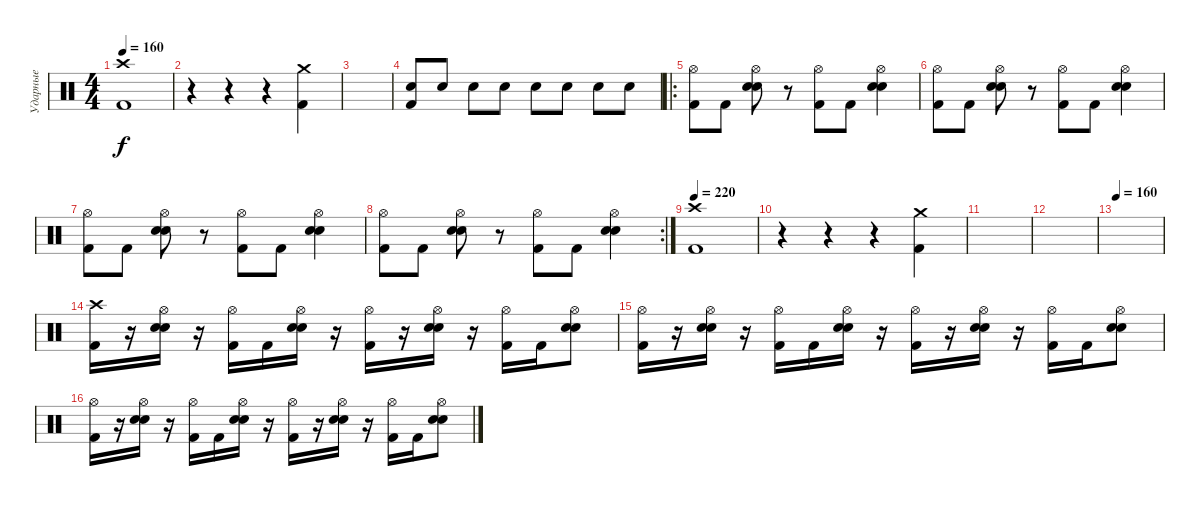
\track ("Ударные" "Ударные") {instrument percussion}
\staff {score}
\articulation defaults
\ts (4 4)
\tempo 160
\clef neutral
\ks c
("Crash high (hit)" "Kick (hit) 2").1{dy f} |
r.4 r.4 r.4 ("Kick (hit) 2" "Crash medium (hit)").4 |
|
("Electric Snare (hit)" "Kick (hit) 2").8 "Electric Snare (hit)".8 "Electric Snare (hit)".8 "Electric Snare (hit)".8 "Electric Snare (hit)".8 "Electric Snare (hit)".8 "Electric Snare (hit)".8 "Electric Snare (hit)".8 |
\ro
("Hi-Hat (open)" "Kick (hit) 2").8 "Kick (hit) 2".8 ("Hi-Hat (open)" "Electric Snare (hit)" "Snare (hit) 2").8 r.8 ("Hi-Hat (open)" "Kick (hit) 2").8 "Kick (hit) 2".8 ("Hi-Hat (open)" "Electric Snare (hit)" "Snare (hit) 2").4 |
("Hi-Hat (open)" "Kick (hit) 2").8 "Kick (hit) 2".8 ("Hi-Hat (open)" "Electric Snare (hit)" "Snare (hit) 2").8 r.8 ("Hi-Hat (open)" "Kick (hit) 2").8 "Kick (hit) 2".8 ("Hi-Hat (open)" "Electric Snare (hit)" "Snare (hit) 2").4 |
("Hi-Hat (open)" "Kick (hit) 2").8 "Kick (hit) 2".8 ("Hi-Hat (open)" "Electric Snare (hit)" "Snare (hit) 2").8 r.8 ("Hi-Hat (open)" "Kick (hit) 2").8 "Kick (hit) 2".8 ("Hi-Hat (open)" "Electric Snare (hit)" "Snare (hit) 2").4 |
\rc 2
("Hi-Hat (open)" "Kick (hit) 2").8 "Kick (hit) 2".8 ("Hi-Hat (open)" "Electric Snare (hit)" "Snare (hit) 2").8 r.8 ("Hi-Hat (open)" "Kick (hit) 2").8 "Kick (hit) 2".8 ("Hi-Hat (open)" "Electric Snare (hit)" "Snare (hit) 2").4 |
\tempo 220
("Crash high (hit)" "Kick (hit) 2").1 |
r.4 r.4 r.4 ("Kick (hit) 2" "Crash medium (hit)").4 |
|
|
\tempo 160
|
("Crash high (hit)" "Kick (hit) 2").16 r.16 ("Hi-Hat (open)" "Electric Snare (hit)" "Snare (hit) 2").16 r.16 ("Hi-Hat (open)" "Kick (hit) 2").16 "Kick (hit) 2".16 ("Hi-Hat (open)" "Electric Snare (hit)" "Snare (hit) 2").16 r.16 ("Hi-Hat (open)" "Kick (hit) 2").16 r.16 ("Hi-Hat (open)" "Electric Snare (hit)" "Snare (hit) 2").16 r.16 ("Hi-Hat (open)" "Kick (hit) 2").16 "Kick (hit) 2".16 ("Hi-Hat (open)" "Electric Snare (hit)" "Snare (hit) 2").8 |
("Hi-Hat (open)" "Kick (hit) 2").16 r.16 ("Hi-Hat (open)" "Electric Snare (hit)" "Snare (hit) 2").16 r.16 ("Hi-Hat (open)" "Kick (hit) 2").16 "Kick (hit) 2".16 ("Hi-Hat (open)" "Electric Snare (hit)" "Snare (hit) 2").16 r.16 ("Hi-Hat (open)" "Kick (hit) 2").16 r.16 ("Hi-Hat (open)" "Electric Snare (hit)" "Snare (hit) 2").16 r.16 ("Hi-Hat (open)" "Kick (hit) 2").16 "Kick (hit) 2".16 ("Hi-Hat (open)" "Electric Snare (hit)" "Snare (hit) 2").8 |
("Hi-Hat (open)" "Kick (hit) 2").16 r.16 ("Hi-Hat (open)" "Electric Snare (hit)" "Snare (hit) 2").16 r.16 ("Hi-Hat (open)" "Kick (hit) 2").16 "Kick (hit) 2".16 ("Hi-Hat (open)" "Electric Snare (hit)" "Snare (hit) 2").16 r.16 ("Hi-Hat (open)" "Kick (hit) 2").16 r.16 ("Hi-Hat (open)" "Electric Snare (hit)" "Snare (hit) 2").16 r.16 ("Hi-Hat (open)" "Kick (hit) 2").16 "Kick (hit) 2".16 ("Hi-Hat (open)" "Electric Snare (hit)" "Snare (hit) 2").8
